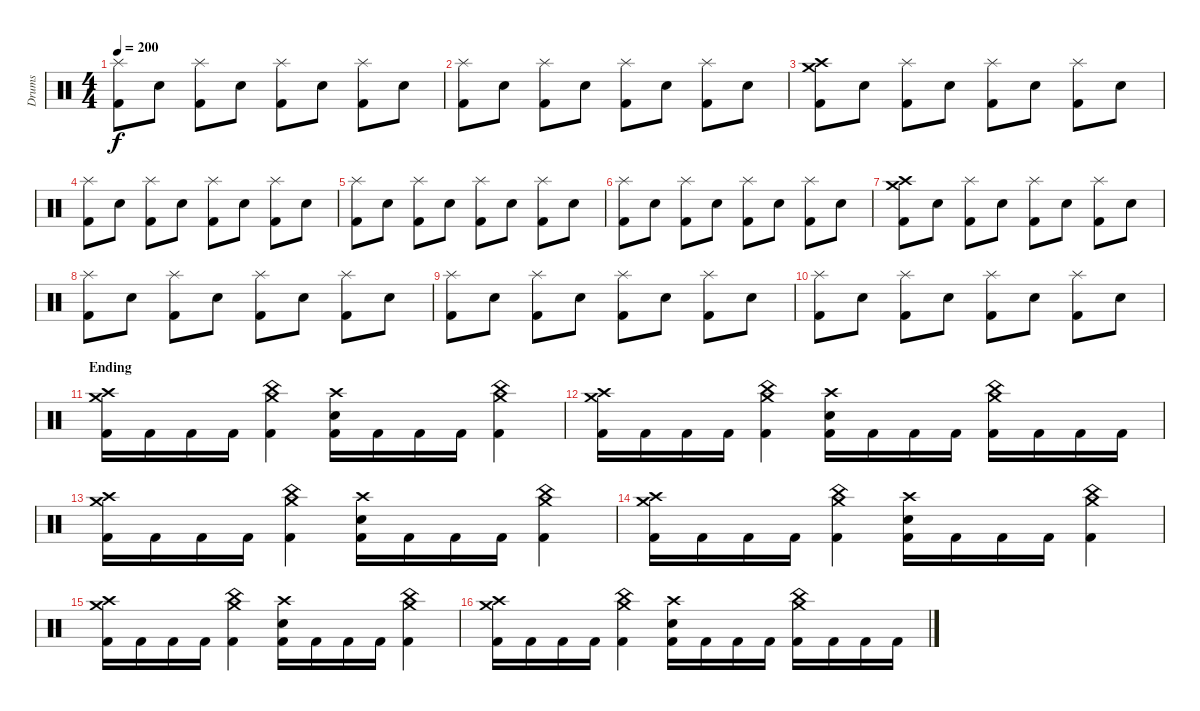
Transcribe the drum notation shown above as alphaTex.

\track ("Drums" "Drums") {instrument percussion}
\staff {score}
\articulation defaults
\ts (4 4)
\tempo 200
\clef neutral
\ks c
("Splash (hit)" "Kick (hit) 2").8{dy f} "Snare (hit) 2".8 ("Splash (hit)" "Kick (hit) 2").8 "Snare (hit) 2".8 ("Splash (hit)" "Kick (hit) 2").8 "Snare (hit) 2".8 ("Splash (hit)" "Kick (hit) 2").8 "Snare (hit) 2".8 |
("Splash (hit)" "Kick (hit) 2").8 "Snare (hit) 2".8 ("Splash (hit)" "Kick (hit) 2").8 "Snare (hit) 2".8 ("Splash (hit)" "Kick (hit) 2").8 "Snare (hit) 2".8 ("Splash (hit)" "Kick (hit) 2").8 "Snare (hit) 2".8 |
("Crash medium (hit)" "Crash high (hit)" "Kick (hit) 2").8 "Snare (hit) 2".8 ("Splash (hit)" "Kick (hit) 2").8 "Snare (hit) 2".8 ("Splash (hit)" "Kick (hit) 2").8 "Snare (hit) 2".8 ("Splash (hit)" "Kick (hit) 2").8 "Snare (hit) 2".8 |
("Splash (hit)" "Kick (hit) 2").8 "Snare (hit) 2".8 ("Splash (hit)" "Kick (hit) 2").8 "Snare (hit) 2".8 ("Splash (hit)" "Kick (hit) 2").8 "Snare (hit) 2".8 ("Splash (hit)" "Kick (hit) 2").8 "Snare (hit) 2".8 |
("Splash (hit)" "Kick (hit) 2").8 "Snare (hit) 2".8 ("Splash (hit)" "Kick (hit) 2").8 "Snare (hit) 2".8 ("Splash (hit)" "Kick (hit) 2").8 "Snare (hit) 2".8 ("Splash (hit)" "Kick (hit) 2").8 "Snare (hit) 2".8 |
("Splash (hit)" "Kick (hit) 2").8 "Snare (hit) 2".8 ("Splash (hit)" "Kick (hit) 2").8 "Snare (hit) 2".8 ("Splash (hit)" "Kick (hit) 2").8 "Snare (hit) 2".8 ("Splash (hit)" "Kick (hit) 2").8 "Snare (hit) 2".8 |
("Crash medium (hit)" "Crash high (hit)" "Kick (hit) 2").8 "Snare (hit) 2".8 ("Splash (hit)" "Kick (hit) 2").8 "Snare (hit) 2".8 ("Splash (hit)" "Kick (hit) 2").8 "Snare (hit) 2".8 ("Splash (hit)" "Kick (hit) 2").8 "Snare (hit) 2".8 |
("Splash (hit)" "Kick (hit) 2").8 "Snare (hit) 2".8 ("Splash (hit)" "Kick (hit) 2").8 "Snare (hit) 2".8 ("Splash (hit)" "Kick (hit) 2").8 "Snare (hit) 2".8 ("Splash (hit)" "Kick (hit) 2").8 "Snare (hit) 2".8 |
("Splash (hit)" "Kick (hit) 2").8 "Snare (hit) 2".8 ("Splash (hit)" "Kick (hit) 2").8 "Snare (hit) 2".8 ("Splash (hit)" "Kick (hit) 2").8 "Snare (hit) 2".8 ("Splash (hit)" "Kick (hit) 2").8 "Snare (hit) 2".8 |
("Splash (hit)" "Kick (hit) 2").8 "Snare (hit) 2".8 ("Splash (hit)" "Kick (hit) 2").8 "Snare (hit) 2".8 ("Splash (hit)" "Kick (hit) 2").8 "Snare (hit) 2".8 ("Splash (hit)" "Kick (hit) 2").8 "Snare (hit) 2".8 |
\section ("" "Ending")
("Crash medium (hit)" "Crash high (hit)" "Kick (hit) 2").16 "Kick (hit) 2".16 "Kick (hit) 2".16 "Kick (hit) 2".16 ("Crash medium (hit)" "China (hit)" "Kick (hit) 2").4 ("Crash high (hit)" "Snare (hit) 2" "Kick (hit) 2").16 "Kick (hit) 2".16 "Kick (hit) 2".16 "Kick (hit) 2".16 ("Crash medium (hit)" "China (hit)" "Kick (hit) 2").4 |
("Crash medium (hit)" "Crash high (hit)" "Kick (hit) 2").16 "Kick (hit) 2".16 "Kick (hit) 2".16 "Kick (hit) 2".16 ("Crash medium (hit)" "China (hit)" "Kick (hit) 2").4 ("Crash high (hit)" "Snare (hit) 2" "Kick (hit) 2").16 "Kick (hit) 2".16 "Kick (hit) 2".16 "Kick (hit) 2".16 ("Crash medium (hit)" "China (hit)" "Kick (hit) 2").16 "Kick (hit) 2".16 "Kick (hit) 2".16 "Kick (hit) 2".16 |
("Crash medium (hit)" "Crash high (hit)" "Kick (hit) 2").16 "Kick (hit) 2".16 "Kick (hit) 2".16 "Kick (hit) 2".16 ("Crash medium (hit)" "China (hit)" "Kick (hit) 2").4 ("Crash high (hit)" "Snare (hit) 2" "Kick (hit) 2").16 "Kick (hit) 2".16 "Kick (hit) 2".16 "Kick (hit) 2".16 ("Crash medium (hit)" "China (hit)" "Kick (hit) 2").4 |
("Crash medium (hit)" "Crash high (hit)" "Kick (hit) 2").16 "Kick (hit) 2".16 "Kick (hit) 2".16 "Kick (hit) 2".16 ("Crash medium (hit)" "China (hit)" "Kick (hit) 2").4 ("Crash high (hit)" "Snare (hit) 2" "Kick (hit) 2").16 "Kick (hit) 2".16 "Kick (hit) 2".16 "Kick (hit) 2".16 ("Crash medium (hit)" "China (hit)" "Kick (hit) 2").4 |
("Crash medium (hit)" "Crash high (hit)" "Kick (hit) 2").16 "Kick (hit) 2".16 "Kick (hit) 2".16 "Kick (hit) 2".16 ("Crash medium (hit)" "China (hit)" "Kick (hit) 2").4 ("Crash high (hit)" "Snare (hit) 2" "Kick (hit) 2").16 "Kick (hit) 2".16 "Kick (hit) 2".16 "Kick (hit) 2".16 ("Crash medium (hit)" "China (hit)" "Kick (hit) 2").4 |
("Crash medium (hit)" "Crash high (hit)" "Kick (hit) 2").16 "Kick (hit) 2".16 "Kick (hit) 2".16 "Kick (hit) 2".16 ("Crash medium (hit)" "China (hit)" "Kick (hit) 2").4 ("Crash high (hit)" "Snare (hit) 2" "Kick (hit) 2").16 "Kick (hit) 2".16 "Kick (hit) 2".16 "Kick (hit) 2".16 ("Crash medium (hit)" "China (hit)" "Kick (hit) 2").16 "Kick (hit) 2".16 "Kick (hit) 2".16 "Kick (hit) 2".16
